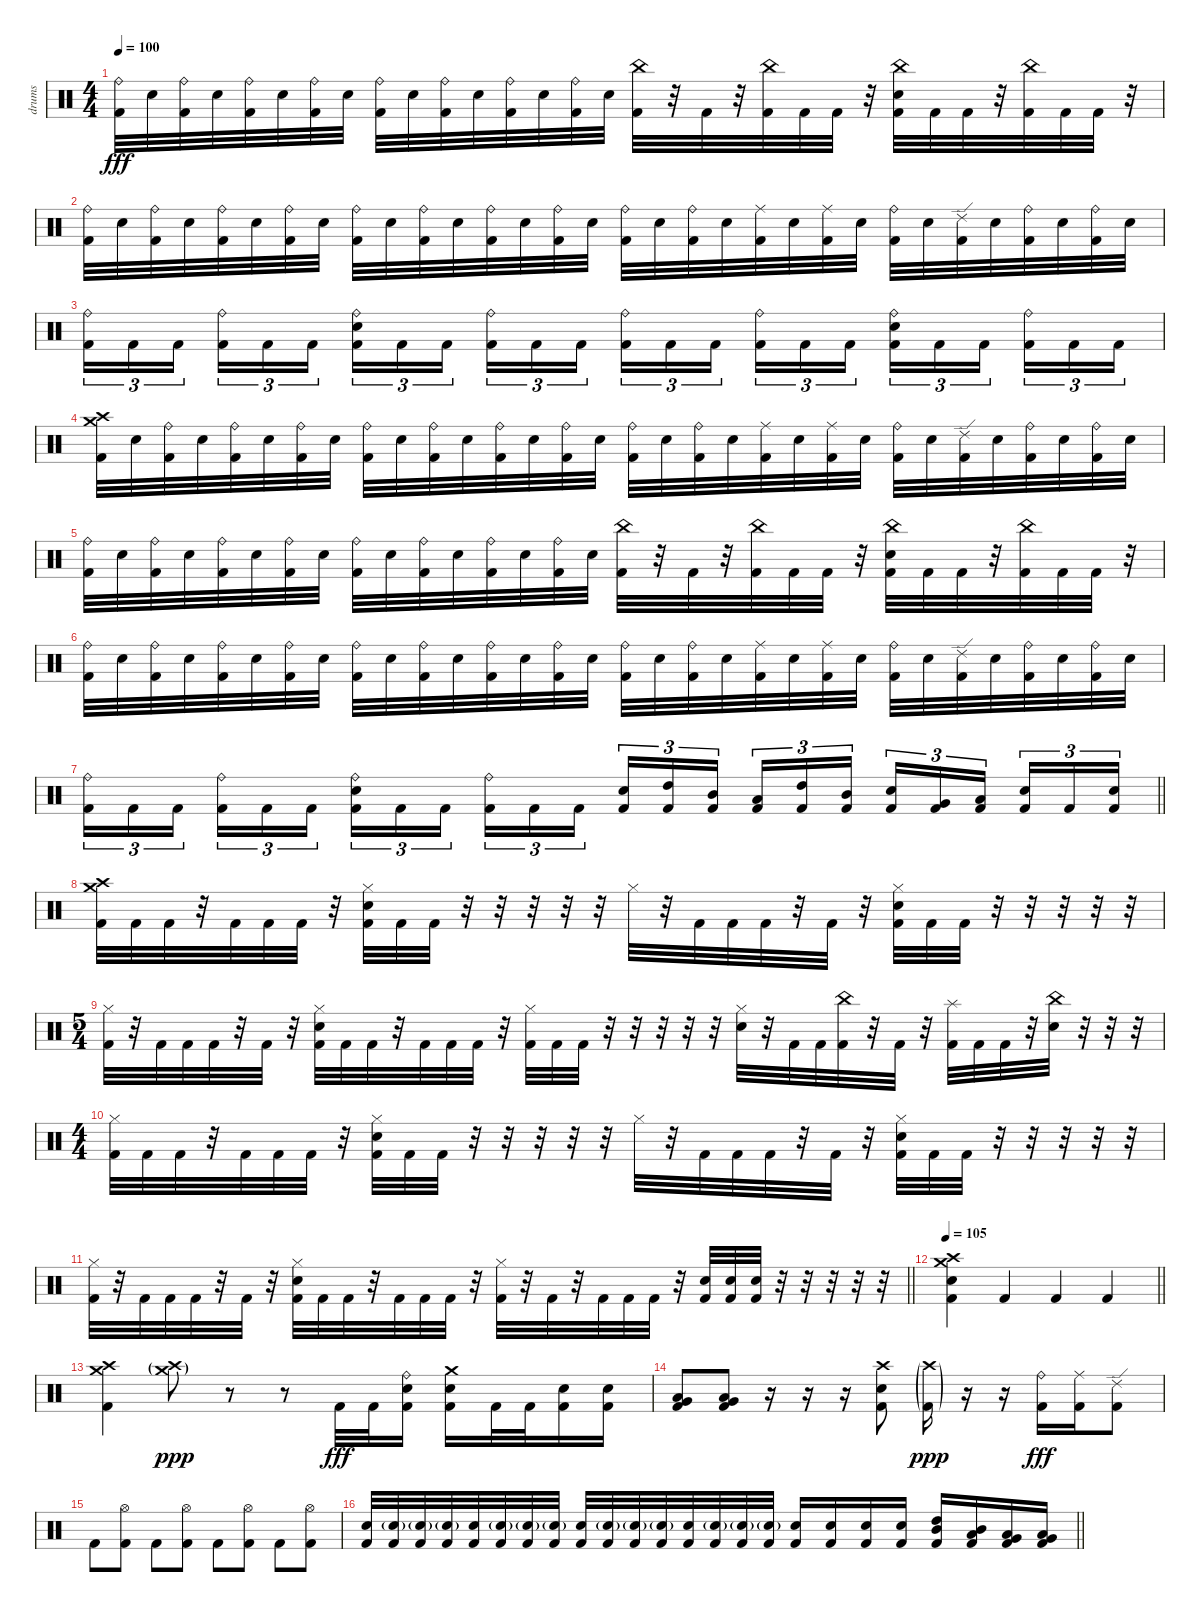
\track ("drums" "drums") {instrument percussion}
\staff {score}
\articulation defaults
\ts (4 4)
\tempo 100
\clef neutral
\ks c
("Ride (bell)" "Kick (hit) 2").32{dy fff} "Electric Snare (hit)".32 ("Ride (bell)" "Kick (hit) 2").32 "Electric Snare (hit)".32 ("Ride (bell)" "Kick (hit) 2").32 "Electric Snare (hit)".32 ("Ride (bell)" "Kick (hit) 2").32 "Electric Snare (hit)".32 ("Ride (bell)" "Kick (hit) 2").32 "Electric Snare (hit)".32 ("Ride (bell)" "Kick (hit) 2").32 "Electric Snare (hit)".32 ("Ride (bell)" "Kick (hit) 2").32 "Electric Snare (hit)".32 ("Ride (bell)" "Kick (hit) 2").32 "Electric Snare (hit)".32 ("China (hit)" "Kick (hit) 2").32 r.32 "Kick (hit) 2".32 r.32 ("China (hit)" "Kick (hit) 2").32 "Kick (hit) 2".32 "Kick (hit) 2".32 r.32 ("China (hit)" "Electric Snare (hit)" "Kick (hit) 2").32 "Kick (hit) 2".32 "Kick (hit) 2".32 r.32 ("China (hit)" "Kick (hit) 2").32 "Kick (hit) 2".32 "Kick (hit) 2".32 r.32 |
("Ride (bell)" "Kick (hit) 2").32 "Electric Snare (hit)".32 ("Ride (bell)" "Kick (hit) 2").32 "Electric Snare (hit)".32 ("Ride (bell)" "Kick (hit) 2").32 "Electric Snare (hit)".32 ("Ride (bell)" "Kick (hit) 2").32 "Electric Snare (hit)".32 ("Ride (bell)" "Kick (hit) 2").32 "Electric Snare (hit)".32 ("Ride (bell)" "Kick (hit) 2").32 "Electric Snare (hit)".32 ("Ride (bell)" "Kick (hit) 2").32 "Electric Snare (hit)".32 ("Ride (bell)" "Kick (hit) 2").32 "Electric Snare (hit)".32 ("Ride (bell)" "Kick (hit) 2").32 "Electric Snare (hit)".32 ("Ride (bell)" "Kick (hit) 2").32 "Electric Snare (hit)".32 ("Ride (middle)" "Kick (hit) 2").32 "Electric Snare (hit)".32 ("Ride (middle)" "Kick (hit) 2").32 "Electric Snare (hit)".32 ("Ride (bell)" "Kick (hit) 2").32 "Electric Snare (hit)".32 ("Ride (edge) 2" "Kick (hit) 2").32 "Electric Snare (hit)".32 ("Ride (bell)" "Kick (hit) 2").32 "Electric Snare (hit)".32 ("Ride (bell)" "Kick (hit) 2").32 "Electric Snare (hit)".32 |
("Ride (bell)" "Kick (hit) 2").16{tu (3 2)} "Kick (hit) 2".16{tu (3 2)} "Kick (hit) 2".16{tu (3 2) beam splitsecondary} ("Ride (bell)" "Kick (hit) 2").16{tu (3 2)} "Kick (hit) 2".16{tu (3 2)} "Kick (hit) 2".16{tu (3 2)} ("Ride (bell)" "Electric Snare (hit)" "Kick (hit) 2").16{tu (3 2)} "Kick (hit) 2".16{tu (3 2)} "Kick (hit) 2".16{tu (3 2) beam splitsecondary} ("Ride (bell)" "Kick (hit) 2").16{tu (3 2)} "Kick (hit) 2".16{tu (3 2)} "Kick (hit) 2".16{tu (3 2)} ("Ride (bell)" "Kick (hit) 2").16{tu (3 2)} "Kick (hit) 2".16{tu (3 2)} "Kick (hit) 2".16{tu (3 2) beam splitsecondary} ("Ride (bell)" "Kick (hit) 2").16{tu (3 2)} "Kick (hit) 2".16{tu (3 2)} "Kick (hit) 2".16{tu (3 2)} ("Ride (bell)" "Electric Snare (hit)" "Kick (hit) 2").16{tu (3 2)} "Kick (hit) 2".16{tu (3 2)} "Kick (hit) 2".16{tu (3 2) beam splitsecondary} ("Ride (bell)" "Kick (hit) 2").16{tu (3 2)} "Kick (hit) 2".16{tu (3 2)} "Kick (hit) 2".16{tu (3 2)} |
("Crash high (hit)" "Crash medium (hit)" "Kick (hit) 2").32 "Electric Snare (hit)".32 ("Ride (bell)" "Kick (hit) 2").32 "Electric Snare (hit)".32 ("Ride (bell)" "Kick (hit) 2").32 "Electric Snare (hit)".32 ("Ride (bell)" "Kick (hit) 2").32 "Electric Snare (hit)".32 ("Ride (bell)" "Kick (hit) 2").32 "Electric Snare (hit)".32 ("Ride (bell)" "Kick (hit) 2").32 "Electric Snare (hit)".32 ("Ride (bell)" "Kick (hit) 2").32 "Electric Snare (hit)".32 ("Ride (bell)" "Kick (hit) 2").32 "Electric Snare (hit)".32 ("Ride (bell)" "Kick (hit) 2").32 "Electric Snare (hit)".32 ("Ride (bell)" "Kick (hit) 2").32 "Electric Snare (hit)".32 ("Ride (middle)" "Kick (hit) 2").32 "Electric Snare (hit)".32 ("Ride (middle)" "Kick (hit) 2").32 "Electric Snare (hit)".32 ("Ride (bell)" "Kick (hit) 2").32 "Electric Snare (hit)".32 ("Ride (edge) 2" "Kick (hit) 2").32 "Electric Snare (hit)".32 ("Ride (bell)" "Kick (hit) 2").32 "Electric Snare (hit)".32 ("Ride (bell)" "Kick (hit) 2").32 "Electric Snare (hit)".32 |
("Ride (bell)" "Kick (hit) 2").32 "Electric Snare (hit)".32 ("Ride (bell)" "Kick (hit) 2").32 "Electric Snare (hit)".32 ("Ride (bell)" "Kick (hit) 2").32 "Electric Snare (hit)".32 ("Ride (bell)" "Kick (hit) 2").32 "Electric Snare (hit)".32 ("Ride (bell)" "Kick (hit) 2").32 "Electric Snare (hit)".32 ("Ride (bell)" "Kick (hit) 2").32 "Electric Snare (hit)".32 ("Ride (bell)" "Kick (hit) 2").32 "Electric Snare (hit)".32 ("Ride (bell)" "Kick (hit) 2").32 "Electric Snare (hit)".32 ("China (hit)" "Kick (hit) 2").32 r.32 "Kick (hit) 2".32 r.32 ("China (hit)" "Kick (hit) 2").32 "Kick (hit) 2".32 "Kick (hit) 2".32 r.32 ("China (hit)" "Electric Snare (hit)" "Kick (hit) 2").32 "Kick (hit) 2".32 "Kick (hit) 2".32 r.32 ("China (hit)" "Kick (hit) 2").32 "Kick (hit) 2".32 "Kick (hit) 2".32 r.32 |
("Ride (bell)" "Kick (hit) 2").32 "Electric Snare (hit)".32 ("Ride (bell)" "Kick (hit) 2").32 "Electric Snare (hit)".32 ("Ride (bell)" "Kick (hit) 2").32 "Electric Snare (hit)".32 ("Ride (bell)" "Kick (hit) 2").32 "Electric Snare (hit)".32 ("Ride (bell)" "Kick (hit) 2").32 "Electric Snare (hit)".32 ("Ride (bell)" "Kick (hit) 2").32 "Electric Snare (hit)".32 ("Ride (bell)" "Kick (hit) 2").32 "Electric Snare (hit)".32 ("Ride (bell)" "Kick (hit) 2").32 "Electric Snare (hit)".32 ("Ride (bell)" "Kick (hit) 2").32 "Electric Snare (hit)".32 ("Ride (bell)" "Kick (hit) 2").32 "Electric Snare (hit)".32 ("Ride (middle)" "Kick (hit) 2").32 "Electric Snare (hit)".32 ("Ride (middle)" "Kick (hit) 2").32 "Electric Snare (hit)".32 ("Ride (bell)" "Kick (hit) 2").32 "Electric Snare (hit)".32 ("Ride (edge) 2" "Kick (hit) 2").32 "Electric Snare (hit)".32 ("Ride (bell)" "Kick (hit) 2").32 "Electric Snare (hit)".32 ("Ride (bell)" "Kick (hit) 2").32 "Electric Snare (hit)".32 |
\barLineRight lightlight
("Ride (bell)" "Kick (hit) 2").16{tu (3 2)} "Kick (hit) 2".16{tu (3 2)} "Kick (hit) 2".16{tu (3 2) beam splitsecondary} ("Ride (bell)" "Kick (hit) 2").16{tu (3 2)} "Kick (hit) 2".16{tu (3 2)} "Kick (hit) 2".16{tu (3 2)} ("Ride (bell)" "Electric Snare (hit)" "Kick (hit) 2").16{tu (3 2)} "Kick (hit) 2".16{tu (3 2)} "Kick (hit) 2".16{tu (3 2) beam splitsecondary} ("Ride (bell)" "Kick (hit) 2").16{tu (3 2)} "Kick (hit) 2".16{tu (3 2)} "Kick (hit) 2".16{tu (3 2)} ("Electric Snare (hit)" "Kick (hit) 2").16{tu (3 2)} ("High Tom (hit)" "Kick (hit) 2").16{tu (3 2)} ("Mid Tom (hit)" "Kick (hit) 2").16{tu (3 2) beam splitsecondary} ("Low Tom (hit)" "Kick (hit) 2").16{tu (3 2)} ("High Tom (hit)" "Kick (hit) 2").16{tu (3 2)} ("Mid Tom (hit)" "Kick (hit) 2").16{tu (3 2)} ("Electric Snare (hit)" "Kick (hit) 2").16{tu (3 2)} ("Very Low Tom (hit)" "Kick (hit) 2").16{tu (3 2)} ("Low Floor Tom (hit)" "Kick (hit) 2").16{tu (3 2) beam splitsecondary} ("Electric Snare (hit)" "Kick (hit) 2").16{tu (3 2)} "Kick (hit) 2".16{tu (3 2)} ("Electric Snare (hit)" "Kick (hit) 2").16{tu (3 2)} |
\section ("" "")
("Crash high (hit)" "Crash medium (hit)" "Kick (hit) 2").32 "Kick (hit) 2".32 "Kick (hit) 2".32 r.32 "Kick (hit) 2".32 "Kick (hit) 2".32 "Kick (hit) 2".32 r.32 ("Hi-Hat (closed)" "Electric Snare (hit)" "Kick (hit) 2").32 "Kick (hit) 2".32 "Kick (hit) 2".32 r.32 r.32 r.32 r.32 r.32 "Hi-Hat (closed)".32 r.32 "Kick (hit) 2".32 "Kick (hit) 2".32 "Kick (hit) 2".32 r.32 "Kick (hit) 2".32 r.32 ("Hi-Hat (closed)" "Electric Snare (hit)" "Kick (hit) 2").32 "Kick (hit) 2".32 "Kick (hit) 2".32 r.32 r.32 r.32 r.32 r.32 |
\ts (5 4)
("Hi-Hat (closed)" "Kick (hit) 2").32 r.32 "Kick (hit) 2".32 "Kick (hit) 2".32 "Kick (hit) 2".32 r.32 "Kick (hit) 2".32 r.32 ("Hi-Hat (closed)" "Electric Snare (hit)" "Kick (hit) 2").32 "Kick (hit) 2".32 "Kick (hit) 2".32 r.32 "Kick (hit) 2".32 "Kick (hit) 2".32 "Kick (hit) 2".32 r.32 ("Hi-Hat (closed)" "Kick (hit) 2").32 "Kick (hit) 2".32 "Kick (hit) 2".32 r.32 r.32 r.32 r.32 r.32 ("Hi-Hat (closed)" "Electric Snare (hit)").32 r.32 "Kick (hit) 2".32 "Kick (hit) 2".32 ("China (hit)" "Kick (hit) 2").32 r.32 "Kick (hit) 2".32 r.32 ("Splash (hit)" "Kick (hit) 2").32 "Kick (hit) 2".32 "Kick (hit) 2".32 r.32 ("China (hit)" "Electric Snare (hit)").32 r.32 r.32 r.32 |
\ts (4 4)
("Hi-Hat (closed)" "Kick (hit) 2").32 "Kick (hit) 2".32 "Kick (hit) 2".32 r.32 "Kick (hit) 2".32 "Kick (hit) 2".32 "Kick (hit) 2".32 r.32 ("Hi-Hat (closed)" "Electric Snare (hit)" "Kick (hit) 2").32 "Kick (hit) 2".32 "Kick (hit) 2".32 r.32 r.32 r.32 r.32 r.32 "Hi-Hat (closed)".32 r.32 "Kick (hit) 2".32 "Kick (hit) 2".32 "Kick (hit) 2".32 r.32 "Kick (hit) 2".32 r.32 ("Hi-Hat (closed)" "Electric Snare (hit)" "Kick (hit) 2").32 "Kick (hit) 2".32 "Kick (hit) 2".32 r.32 r.32 r.32 r.32 r.32 |
\barLineRight lightlight
("Hi-Hat (closed)" "Kick (hit) 2").32 r.32 "Kick (hit) 2".32 "Kick (hit) 2".32 "Kick (hit) 2".32 r.32 "Kick (hit) 2".32 r.32 ("Hi-Hat (closed)" "Electric Snare (hit)" "Kick (hit) 2").32 "Kick (hit) 2".32 "Kick (hit) 2".32 r.32 "Kick (hit) 2".32 "Kick (hit) 2".32 "Kick (hit) 2".32 r.32 ("Hi-Hat (closed)" "Kick (hit) 2").32 r.32 "Kick (hit) 2".32 r.32 "Kick (hit) 2".32 "Kick (hit) 2".32 "Kick (hit) 2".32 r.32 ("Electric Snare (hit)" "Kick (hit) 2").32 ("Electric Snare (hit)" "Kick (hit) 2").32 ("Electric Snare (hit)" "Kick (hit) 2").32 r.32 r.32 r.32 r.32 r.32 |
\section ("" "")
\tempo 105
\barLineRight lightlight
("Crash high (hit)" "Crash medium (hit)" "Electric Snare (hit)" "Kick (hit) 2").4 "Kick (hit) 2".4 "Kick (hit) 2".4 "Kick (hit) 2".4 |
\section ("" "")
("Crash high (hit)" "Crash medium (hit)" "Kick (hit) 2").4 ("Crash high (hit)"{g} "Crash medium (hit)"{g}).8{dy ppp} r.8 r.8 "Kick (hit) 2".32{dy fff} "Kick (hit) 2".32 ("Ride (bell)" "Electric Snare (hit)" "Kick (hit) 2").16 ("Crash medium (hit)" "Electric Snare (hit)" "Kick (hit) 2").16 "Kick (hit) 2".32 "Kick (hit) 2".32 ("Electric Snare (hit)" "Kick (hit) 2").16 ("Electric Snare (hit)" "Kick (hit) 2").16 |
("Very Low Tom (hit)" "Low Floor Tom (hit)" "Kick (hit) 2").8 ("Very Low Tom (hit)" "Low Floor Tom (hit)" "Kick (hit) 2").8 r.16 r.16 r.16 ("Crash high (hit)" "Electric Snare (hit)" "Kick (hit) 2").8 ("Crash high (hit)"{g} "Kick (hit) 2"{g}).16{dy ppp} r.16 r.16 ("Ride (bell)" "Kick (hit) 2").16{dy fff} ("Ride (middle)" "Kick (hit) 2").16 ("Ride (edge) 2" "Kick (hit) 2").8 |
"Kick (hit) 2".8 ("Hi-Hat (open)" "Kick (hit) 2").8 "Kick (hit) 2".8 ("Hi-Hat (open)" "Kick (hit) 2").8 "Kick (hit) 2".8 ("Hi-Hat (open)" "Kick (hit) 2").8 "Kick (hit) 2".8 ("Hi-Hat (open)" "Kick (hit) 2").8 |
\barLineRight lightlight
("Electric Snare (hit)" "Kick (hit) 2").32 ("Electric Snare (hit)"{g} "Kick (hit) 2").32 ("Electric Snare (hit)"{g} "Kick (hit) 2").32 ("Electric Snare (hit)"{g} "Kick (hit) 2").32 ("Electric Snare (hit)" "Kick (hit) 2").32 ("Electric Snare (hit)"{g} "Kick (hit) 2").32 ("Electric Snare (hit)"{g} "Kick (hit) 2").32 ("Electric Snare (hit)"{g} "Kick (hit) 2").32 ("Electric Snare (hit)" "Kick (hit) 2").32 ("Electric Snare (hit)"{g} "Kick (hit) 2").32 ("Electric Snare (hit)"{g} "Kick (hit) 2").32 ("Electric Snare (hit)"{g} "Kick (hit) 2").32 ("Electric Snare (hit)" "Kick (hit) 2").32 ("Electric Snare (hit)"{g} "Kick (hit) 2").32 ("Electric Snare (hit)"{g} "Kick (hit) 2").32 ("Electric Snare (hit)"{g} "Kick (hit) 2").32 ("Electric Snare (hit)" "Kick (hit) 2").16 ("Electric Snare (hit)" "Kick (hit) 2").16 ("Electric Snare (hit)" "Kick (hit) 2").16 ("Electric Snare (hit)" "Kick (hit) 2").16 ("High Tom (hit)" "Mid Tom (hit)" "Kick (hit) 2").16 ("Mid Tom (hit)" "Low Tom (hit)" "Kick (hit) 2").16 ("Very Low Tom (hit)" "Low Floor Tom (hit)" "Kick (hit) 2").16 ("Very Low Tom (hit)" "Low Floor Tom (hit)" "Kick (hit) 2").16
